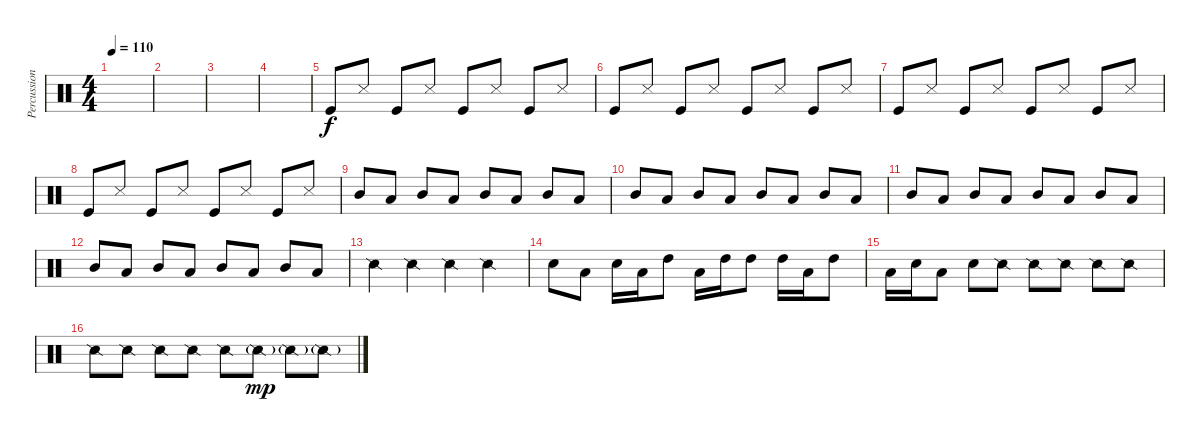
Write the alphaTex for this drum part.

\track ("Percussions" "Percussion") {instrument percussion}
\staff {score}
\articulation defaults
\ts (4 4)
\tempo 110
\clef neutral
\ks c
|
|
|
|
"Kick (hit)".8 "Snare (side stick) 3".8 "Kick (hit)".8 "Snare (side stick) 3".8 "Kick (hit)".8 "Snare (side stick) 3".8 "Kick (hit)".8 "Snare (side stick) 3".8 |
"Kick (hit)".8 "Snare (side stick) 3".8 "Kick (hit)".8 "Snare (side stick) 3".8 "Kick (hit)".8 "Snare (side stick) 3".8 "Kick (hit)".8 "Snare (side stick) 3".8 |
"Kick (hit)".8 "Snare (side stick) 3".8 "Kick (hit)".8 "Snare (side stick) 3".8 "Kick (hit)".8 "Snare (side stick) 3".8 "Kick (hit)".8 "Snare (side stick) 3".8 |
"Kick (hit)".8 "Snare (side stick) 3".8 "Kick (hit)".8 "Snare (side stick) 3".8 "Kick (hit)".8 "Snare (side stick) 3".8 "Kick (hit)".8 "Snare (side stick) 3".8 |
"Mid Tom (hit)".8 "Low Tom (hit)".8 "Mid Tom (hit)".8 "Low Tom (hit)".8 "Mid Tom (hit)".8 "Low Tom (hit)".8 "Mid Tom (hit)".8 "Low Tom (hit)".8 |
"Mid Tom (hit)".8 "Low Tom (hit)".8 "Mid Tom (hit)".8 "Low Tom (hit)".8 "Mid Tom (hit)".8 "Low Tom (hit)".8 "Mid Tom (hit)".8 "Low Tom (hit)".8 |
"Mid Tom (hit)".8 "Low Tom (hit)".8 "Mid Tom (hit)".8 "Low Tom (hit)".8 "Mid Tom (hit)".8 "Low Tom (hit)".8 "Mid Tom (hit)".8 "Low Tom (hit)".8 |
"Mid Tom (hit)".8 "Low Tom (hit)".8 "Mid Tom (hit)".8 "Low Tom (hit)".8 "Mid Tom (hit)".8 "Low Tom (hit)".8 "Mid Tom (hit)".8 "Low Tom (hit)".8 |
"Snare (side stick) 2".4 "Snare (side stick) 2".4 "Snare (side stick) 2".4 "Snare (side stick) 2".4 |
"Snare (hit) 2".8 "Low Tom (hit)".8 "Snare (hit) 2".16 "Low Tom (hit)".16 "High Tom (hit)".8 "Low Tom (hit)".16 "High Tom (hit)".16 "High Tom (hit)".8 "High Tom (hit)".16 "Low Tom (hit)".16 "High Tom (hit)".8 |
"Low Tom (hit)".16 "Snare (hit) 2".16 "Low Tom (hit)".8 "Snare (hit) 2".8 "Snare (side stick) 2".8 "Snare (side stick) 2".8 "Snare (side stick) 2".8 "Snare (side stick) 2".8 "Snare (side stick) 2".8 |
"Snare (side stick) 2".8 "Snare (side stick) 2".8 "Snare (side stick) 2".8 "Snare (side stick) 2".8 "Snare (side stick) 2".8 "Snare (side stick) 2"{g}.8{dy mp} "Snare (side stick) 2"{g}.8 "Snare (side stick) 2"{g}.8
